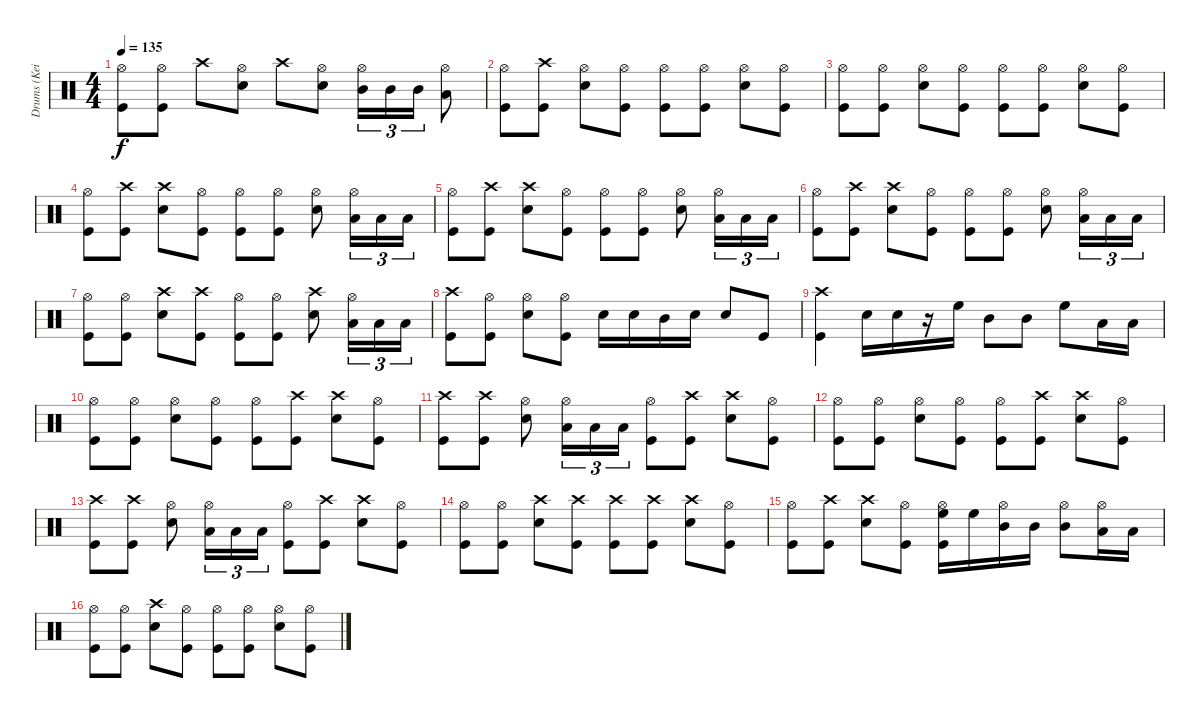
\track ("Drums (Keith)" "Drums (Kei") {instrument percussion}
\staff {score}
\articulation defaults
\ts (4 4)
\tempo 135
\clef neutral
\ks c
("Hi-Hat (open)" "Kick (hit)").8{dy f} ("Hi-Hat (open)" "Kick (hit)").8 "Crash high (hit)".8 ("Hi-Hat (open)" "Snare (hit) 2").8 "Crash high (hit)".8 ("Hi-Hat (open)" "Snare (hit) 2").8 ("Hi-Hat (open)" "Mid Tom (hit)").16{tu (3 2)} "Mid Tom (hit)".16{tu (3 2)} "Mid Tom (hit)".16{tu (3 2)} ("Hi-Hat (open)" "Low Tom (hit)").8 |
("Hi-Hat (open)" "Kick (hit)").8 ("Crash high (hit)" "Kick (hit)").8 ("Hi-Hat (open)" "Snare (hit) 2").8 ("Hi-Hat (open)" "Kick (hit)").8 ("Hi-Hat (open)" "Kick (hit)").8 ("Hi-Hat (open)" "Kick (hit)").8 ("Hi-Hat (open)" "Snare (hit) 2").8 ("Hi-Hat (open)" "Kick (hit)").8 |
("Hi-Hat (open)" "Kick (hit)").8 ("Hi-Hat (open)" "Kick (hit)").8 ("Hi-Hat (open)" "Snare (hit) 2").8 ("Hi-Hat (open)" "Kick (hit)").8 ("Hi-Hat (open)" "Kick (hit)").8 ("Hi-Hat (open)" "Kick (hit)").8 ("Hi-Hat (open)" "Snare (hit) 2").8 ("Hi-Hat (open)" "Kick (hit)").8 |
("Hi-Hat (open)" "Kick (hit)").8 ("Crash high (hit)" "Kick (hit)").8 ("Crash high (hit)" "Snare (hit) 2").8 ("Hi-Hat (open)" "Kick (hit)").8 ("Hi-Hat (open)" "Kick (hit)").8 ("Hi-Hat (open)" "Kick (hit)").8 ("Hi-Hat (open)" "Snare (hit) 2").8 ("Hi-Hat (open)" "Low Tom (hit)").16{tu (3 2)} "Low Tom (hit)".16{tu (3 2)} "Low Tom (hit)".16{tu (3 2)} |
("Hi-Hat (open)" "Kick (hit)").8 ("Crash high (hit)" "Kick (hit)").8 ("Crash high (hit)" "Snare (hit) 2").8 ("Hi-Hat (open)" "Kick (hit)").8 ("Hi-Hat (open)" "Kick (hit)").8 ("Hi-Hat (open)" "Kick (hit)").8 ("Hi-Hat (open)" "Snare (hit) 2").8 ("Hi-Hat (open)" "Low Tom (hit)").16{tu (3 2)} "Low Tom (hit)".16{tu (3 2)} "Low Tom (hit)".16{tu (3 2)} |
("Hi-Hat (open)" "Kick (hit)").8 ("Crash high (hit)" "Kick (hit)").8 ("Crash high (hit)" "Snare (hit) 2").8 ("Hi-Hat (open)" "Kick (hit)").8 ("Hi-Hat (open)" "Kick (hit)").8 ("Hi-Hat (open)" "Kick (hit)").8 ("Hi-Hat (open)" "Snare (hit) 2").8 ("Hi-Hat (open)" "Low Tom (hit)").16{tu (3 2)} "Low Tom (hit)".16{tu (3 2)} "Low Tom (hit)".16{tu (3 2)} |
("Hi-Hat (open)" "Kick (hit)").8 ("Hi-Hat (open)" "Kick (hit)").8 ("Crash high (hit)" "Snare (hit) 2").8 ("Crash high (hit)" "Kick (hit)").8 ("Hi-Hat (open)" "Kick (hit)").8 ("Hi-Hat (open)" "Kick (hit)").8 ("Crash high (hit)" "Snare (hit) 2").8 ("Hi-Hat (open)" "Low Tom (hit)").16{tu (3 2)} "Low Tom (hit)".16{tu (3 2)} "Low Tom (hit)".16{tu (3 2)} |
("Crash high (hit)" "Kick (hit)").8 ("Hi-Hat (open)" "Kick (hit)").8 ("Hi-Hat (open)" "Snare (hit) 2").8 ("Hi-Hat (open)" "Kick (hit)").8 "Snare (hit) 2".16 "Snare (hit) 2".16 "Mid Tom (hit)".16 "Snare (hit) 2".16 "Snare (hit) 2".8 "Kick (hit)".8 |
("Crash high (hit)" "Kick (hit)").4 "Snare (hit) 2".16 "Snare (hit) 2".16 r.16 "High Floor Tom (hit)".16 "Mid Tom (hit)".8 "Mid Tom (hit)".8 "High Floor Tom (hit)".8 "Low Tom (hit)".16 "Low Tom (hit)".16 |
("Hi-Hat (open)" "Kick (hit)").8 ("Hi-Hat (open)" "Kick (hit)").8 ("Hi-Hat (open)" "Snare (hit) 2").8 ("Hi-Hat (open)" "Kick (hit)").8 ("Hi-Hat (open)" "Kick (hit)").8 ("Crash high (hit)" "Kick (hit)").8 ("Crash high (hit)" "Snare (hit) 2").8 ("Hi-Hat (open)" "Kick (hit)").8 |
("Crash high (hit)" "Kick (hit)").8 ("Crash high (hit)" "Kick (hit)").8 ("Hi-Hat (open)" "Snare (hit) 2").8 ("Hi-Hat (open)" "Low Tom (hit)").16{tu (3 2)} "Low Tom (hit)".16{tu (3 2)} "Low Tom (hit)".16{tu (3 2)} ("Hi-Hat (open)" "Kick (hit)").8 ("Crash high (hit)" "Kick (hit)").8 ("Crash high (hit)" "Snare (hit) 2").8 ("Hi-Hat (open)" "Kick (hit)").8 |
("Hi-Hat (open)" "Kick (hit)").8 ("Hi-Hat (open)" "Kick (hit)").8 ("Hi-Hat (open)" "Snare (hit) 2").8 ("Hi-Hat (open)" "Kick (hit)").8 ("Hi-Hat (open)" "Kick (hit)").8 ("Crash high (hit)" "Kick (hit)").8 ("Crash high (hit)" "Snare (hit) 2").8 ("Hi-Hat (open)" "Kick (hit)").8 |
("Crash high (hit)" "Kick (hit)").8 ("Crash high (hit)" "Kick (hit)").8 ("Hi-Hat (open)" "Snare (hit) 2").8 ("Hi-Hat (open)" "Low Tom (hit)").16{tu (3 2)} "Low Tom (hit)".16{tu (3 2)} "Low Tom (hit)".16{tu (3 2)} ("Hi-Hat (open)" "Kick (hit)").8 ("Crash high (hit)" "Kick (hit)").8 ("Crash high (hit)" "Snare (hit) 2").8 ("Hi-Hat (open)" "Kick (hit)").8 |
("Hi-Hat (open)" "Kick (hit)").8 ("Hi-Hat (open)" "Kick (hit)").8 ("Crash high (hit)" "Snare (hit) 2").8 ("Crash high (hit)" "Kick (hit)").8 ("Crash high (hit)" "Kick (hit)").8 ("Crash high (hit)" "Kick (hit)").8 ("Crash high (hit)" "Snare (hit) 2").8 ("Hi-Hat (open)" "Kick (hit)").8 |
("Hi-Hat (open)" "Kick (hit)").8 ("Crash high (hit)" "Kick (hit)").8 ("Crash high (hit)" "Snare (hit) 2").8 ("Hi-Hat (open)" "Kick (hit)").8 ("Hi-Hat (open)" "High Floor Tom (hit)" "Kick (hit)").16 "High Floor Tom (hit)".16 ("Hi-Hat (open)" "Mid Tom (hit)").16 "Mid Tom (hit)".16 ("Hi-Hat (open)" "Mid Tom (hit)").8 ("Hi-Hat (open)" "Low Tom (hit)").16 "Low Tom (hit)".16 |
("Hi-Hat (open)" "Kick (hit)").8 ("Hi-Hat (open)" "Kick (hit)").8 ("Crash high (hit)" "Snare (hit) 2").8 ("Hi-Hat (open)" "Kick (hit)").8 ("Hi-Hat (open)" "Kick (hit)").8 ("Hi-Hat (open)" "Kick (hit)").8 ("Hi-Hat (open)" "Snare (hit) 2").8 ("Hi-Hat (open)" "Kick (hit)").8
